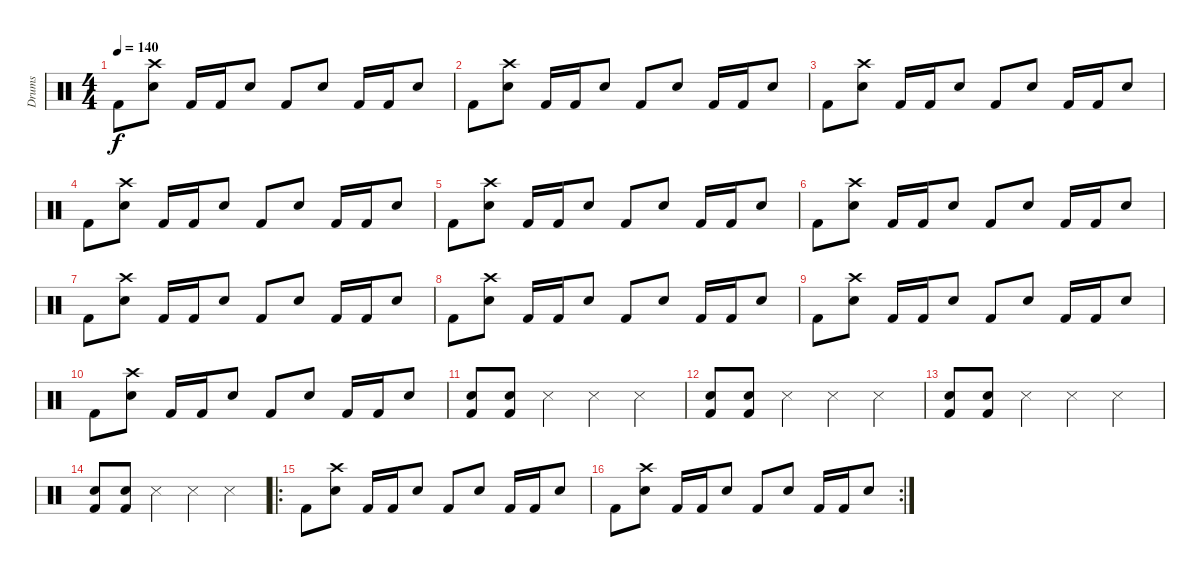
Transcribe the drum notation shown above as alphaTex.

\track ("Drums" "Drums") {instrument percussion}
\staff {score}
\articulation defaults
\ts (4 4)
\tempo 140
\clef neutral
\ks c "Kick (hit) 2".8{dy f}
("Snare (hit) 2" "Crash high (hit)").8 "Kick (hit) 2".16 "Kick (hit) 2".16 "Snare (hit) 2".8 "Kick (hit) 2".8 "Snare (hit) 2".8 "Kick (hit) 2".16 "Kick (hit) 2".16 "Snare (hit) 2".8 |
"Kick (hit) 2".8 ("Snare (hit) 2" "Crash high (hit)").8 "Kick (hit) 2".16 "Kick (hit) 2".16 "Snare (hit) 2".8 "Kick (hit) 2".8 "Snare (hit) 2".8 "Kick (hit) 2".16 "Kick (hit) 2".16 "Snare (hit) 2".8 |
"Kick (hit) 2".8 ("Snare (hit) 2" "Crash high (hit)").8 "Kick (hit) 2".16 "Kick (hit) 2".16 "Snare (hit) 2".8 "Kick (hit) 2".8 "Snare (hit) 2".8 "Kick (hit) 2".16 "Kick (hit) 2".16 "Snare (hit) 2".8 |
"Kick (hit) 2".8 ("Snare (hit) 2" "Crash high (hit)").8 "Kick (hit) 2".16 "Kick (hit) 2".16 "Snare (hit) 2".8 "Kick (hit) 2".8 "Snare (hit) 2".8 "Kick (hit) 2".16 "Kick (hit) 2".16 "Snare (hit) 2".8 |
"Kick (hit) 2".8 ("Snare (hit) 2" "Crash high (hit)").8 "Kick (hit) 2".16 "Kick (hit) 2".16 "Snare (hit) 2".8 "Kick (hit) 2".8 "Snare (hit) 2".8 "Kick (hit) 2".16 "Kick (hit) 2".16 "Snare (hit) 2".8 |
"Kick (hit) 2".8 ("Snare (hit) 2" "Crash high (hit)").8 "Kick (hit) 2".16 "Kick (hit) 2".16 "Snare (hit) 2".8 "Kick (hit) 2".8 "Snare (hit) 2".8 "Kick (hit) 2".16 "Kick (hit) 2".16 "Snare (hit) 2".8 |
"Kick (hit) 2".8 ("Snare (hit) 2" "Crash high (hit)").8 "Kick (hit) 2".16 "Kick (hit) 2".16 "Snare (hit) 2".8 "Kick (hit) 2".8 "Snare (hit) 2".8 "Kick (hit) 2".16 "Kick (hit) 2".16 "Snare (hit) 2".8 |
"Kick (hit) 2".8 ("Snare (hit) 2" "Crash high (hit)").8 "Kick (hit) 2".16 "Kick (hit) 2".16 "Snare (hit) 2".8 "Kick (hit) 2".8 "Snare (hit) 2".8 "Kick (hit) 2".16 "Kick (hit) 2".16 "Snare (hit) 2".8 |
"Kick (hit) 2".8 ("Snare (hit) 2" "Crash high (hit)").8 "Kick (hit) 2".16 "Kick (hit) 2".16 "Snare (hit) 2".8 "Kick (hit) 2".8 "Snare (hit) 2".8 "Kick (hit) 2".16 "Kick (hit) 2".16 "Snare (hit) 2".8 |
"Kick (hit) 2".8 ("Snare (hit) 2" "Crash high (hit)").8 "Kick (hit) 2".16 "Kick (hit) 2".16 "Snare (hit) 2".8 "Kick (hit) 2".8 "Snare (hit) 2".8 "Kick (hit) 2".16 "Kick (hit) 2".16 "Snare (hit) 2".8 |
("Kick (hit) 2" "Snare (hit) 2").8 ("Kick (hit) 2" "Snare (hit) 2").8 "Snare (side stick) 3".4 "Snare (side stick) 3".4 "Snare (side stick) 3".4 |
("Kick (hit) 2" "Snare (hit) 2").8 ("Kick (hit) 2" "Snare (hit) 2").8 "Snare (side stick) 3".4 "Snare (side stick) 3".4 "Snare (side stick) 3".4 |
("Kick (hit) 2" "Snare (hit) 2").8 ("Kick (hit) 2" "Snare (hit) 2").8 "Snare (side stick) 3".4 "Snare (side stick) 3".4 "Snare (side stick) 3".4 |
("Kick (hit) 2" "Snare (hit) 2").8 ("Kick (hit) 2" "Snare (hit) 2").8 "Snare (side stick) 3".4 "Snare (side stick) 3".4 "Snare (side stick) 3".4 |
\ro "Kick (hit) 2".8
("Snare (hit) 2" "Crash high (hit)").8 "Kick (hit) 2".16 "Kick (hit) 2".16 "Snare (hit) 2".8 "Kick (hit) 2".8 "Snare (hit) 2".8 "Kick (hit) 2".16 "Kick (hit) 2".16 "Snare (hit) 2".8 |
\rc 2 "Kick (hit) 2".8
("Snare (hit) 2" "Crash high (hit)").8 "Kick (hit) 2".16 "Kick (hit) 2".16 "Snare (hit) 2".8 "Kick (hit) 2".8 "Snare (hit) 2".8 "Kick (hit) 2".16 "Kick (hit) 2".16 "Snare (hit) 2".8
